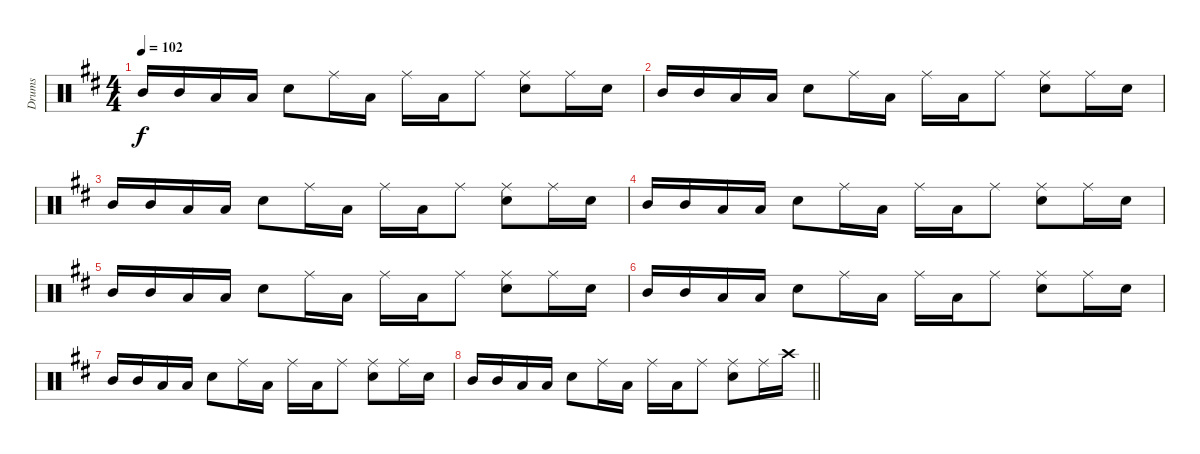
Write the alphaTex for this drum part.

\track ("Drums" "Drums") {instrument percussion}
\staff {score}
\articulation defaults
\ts (4 4)
\tempo 102
\clef neutral
\ks d "Mid Tom (hit)".16{dy f} "Mid Tom (hit)".16 "Low Tom (hit)".16 "Low Tom (hit)".16 "Snare (hit) 2".8 "Ride (middle)".16 "Low Tom (hit)".16 "Ride (middle)".16 "Low Tom (hit)".16 "Ride (middle)".8
("Ride (middle)" "Snare (hit) 2").8 "Ride (middle)".16 "Snare (hit) 2".16 |
"Mid Tom (hit)".16 "Mid Tom (hit)".16 "Low Tom (hit)".16 "Low Tom (hit)".16 "Snare (hit) 2".8 "Ride (middle)".16 "Low Tom (hit)".16 "Ride (middle)".16 "Low Tom (hit)".16 "Ride (middle)".8 ("Ride (middle)" "Snare (hit) 2").8 "Ride (middle)".16 "Snare (hit) 2".16 |
"Mid Tom (hit)".16 "Mid Tom (hit)".16 "Low Tom (hit)".16 "Low Tom (hit)".16 "Snare (hit) 2".8 "Ride (middle)".16 "Low Tom (hit)".16 "Ride (middle)".16 "Low Tom (hit)".16 "Ride (middle)".8 ("Ride (middle)" "Snare (hit) 2").8 "Ride (middle)".16 "Snare (hit) 2".16 |
"Mid Tom (hit)".16 "Mid Tom (hit)".16 "Low Tom (hit)".16 "Low Tom (hit)".16 "Snare (hit) 2".8 "Ride (middle)".16 "Low Tom (hit)".16 "Ride (middle)".16 "Low Tom (hit)".16 "Ride (middle)".8 ("Ride (middle)" "Snare (hit) 2").8 "Ride (middle)".16 "Snare (hit) 2".16 |
"Mid Tom (hit)".16 "Mid Tom (hit)".16 "Low Tom (hit)".16 "Low Tom (hit)".16 "Snare (hit) 2".8 "Ride (middle)".16 "Low Tom (hit)".16 "Ride (middle)".16 "Low Tom (hit)".16 "Ride (middle)".8 ("Ride (middle)" "Snare (hit) 2").8 "Ride (middle)".16 "Snare (hit) 2".16 |
"Mid Tom (hit)".16 "Mid Tom (hit)".16 "Low Tom (hit)".16 "Low Tom (hit)".16 "Snare (hit) 2".8 "Ride (middle)".16 "Low Tom (hit)".16 "Ride (middle)".16 "Low Tom (hit)".16 "Ride (middle)".8 ("Ride (middle)" "Snare (hit) 2").8 "Ride (middle)".16 "Snare (hit) 2".16 |
"Mid Tom (hit)".16 "Mid Tom (hit)".16 "Low Tom (hit)".16 "Low Tom (hit)".16 "Snare (hit) 2".8 "Ride (middle)".16 "Low Tom (hit)".16 "Ride (middle)".16 "Low Tom (hit)".16 "Ride (middle)".8 ("Ride (middle)" "Snare (hit) 2").8 "Ride (middle)".16 "Snare (hit) 2".16 |
\barLineRight lightlight "Mid Tom (hit)".16 "Mid Tom (hit)".16 "Low Tom (hit)".16 "Low Tom (hit)".16 "Snare (hit) 2".8 "Ride (middle)".16 "Low Tom (hit)".16 "Ride (middle)".16 "Low Tom (hit)".16 "Ride (middle)".8
("Ride (middle)" "Snare (hit) 2").8 "Ride (middle)".16 "Crash high (hit)".16
